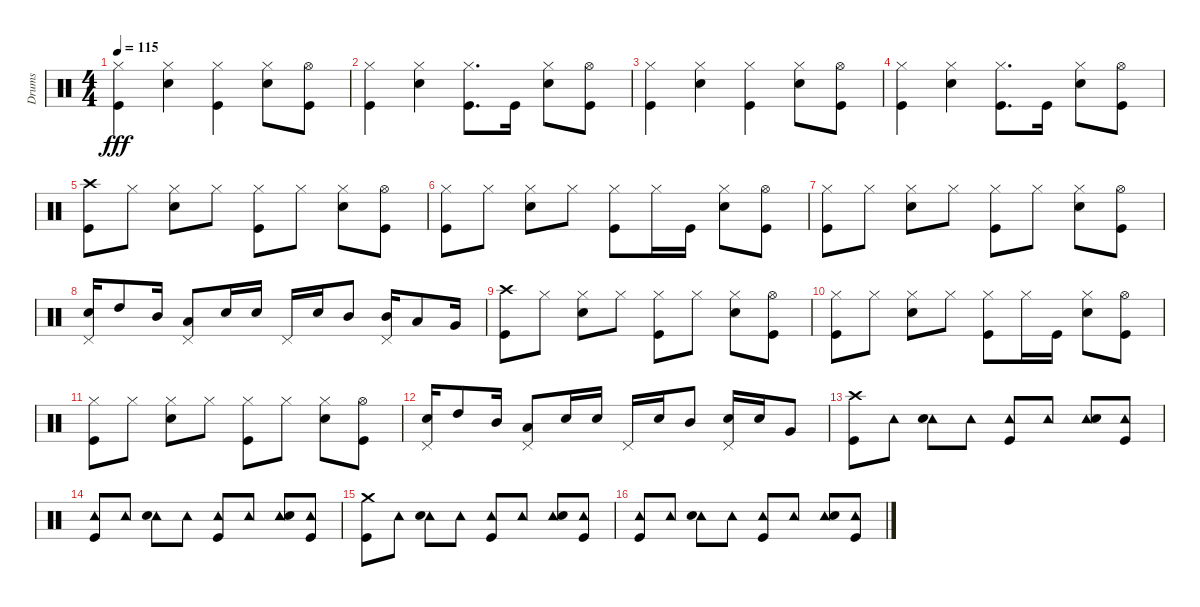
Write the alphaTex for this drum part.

\track ("Drums" "Drums") {instrument percussion}
\staff {score}
\articulation defaults
\ts (4 4)
\tempo 115
\clef neutral
\ks c
("Hi-Hat (closed)" "Kick (hit)").4{dy fff} ("Hi-Hat (closed)" "Electric Snare (hit)").4 ("Hi-Hat (closed)" "Kick (hit)").4 ("Hi-Hat (closed)" "Electric Snare (hit)").8 ("Hi-Hat (open)" "Kick (hit)").8 |
("Hi-Hat (closed)" "Kick (hit)").4 ("Hi-Hat (closed)" "Electric Snare (hit)").4 ("Hi-Hat (closed)" "Kick (hit)").8{d} "Kick (hit)".16 ("Hi-Hat (closed)" "Electric Snare (hit)").8 ("Hi-Hat (open)" "Kick (hit)").8 |
("Hi-Hat (closed)" "Kick (hit)").4 ("Hi-Hat (closed)" "Electric Snare (hit)").4 ("Hi-Hat (closed)" "Kick (hit)").4 ("Hi-Hat (closed)" "Electric Snare (hit)").8 ("Hi-Hat (open)" "Kick (hit)").8 |
("Hi-Hat (closed)" "Kick (hit)").4 ("Hi-Hat (closed)" "Electric Snare (hit)").4 ("Hi-Hat (closed)" "Kick (hit)").8{d} "Kick (hit)".16 ("Hi-Hat (closed)" "Electric Snare (hit)").8 ("Hi-Hat (open)" "Kick (hit)").8 |
("Crash high (hit)" "Kick (hit)").8 "Hi-Hat (closed)".8 ("Hi-Hat (closed)" "Electric Snare (hit)").8 "Hi-Hat (closed)".8 ("Hi-Hat (closed)" "Kick (hit)").8 "Hi-Hat (closed)".8 ("Hi-Hat (closed)" "Electric Snare (hit)").8 ("Hi-Hat (open)" "Kick (hit)").8 |
("Hi-Hat (closed)" "Kick (hit)").8 "Hi-Hat (closed)".8 ("Hi-Hat (closed)" "Electric Snare (hit)").8 "Hi-Hat (closed)".8 ("Hi-Hat (closed)" "Kick (hit)").8 "Hi-Hat (closed)".16 "Kick (hit)".16 ("Hi-Hat (closed)" "Electric Snare (hit)").8 ("Hi-Hat (open)" "Kick (hit)").8 |
("Hi-Hat (closed)" "Kick (hit)").8 "Hi-Hat (closed)".8 ("Hi-Hat (closed)" "Electric Snare (hit)").8 "Hi-Hat (closed)".8 ("Hi-Hat (closed)" "Kick (hit)").8 "Hi-Hat (closed)".8 ("Hi-Hat (closed)" "Electric Snare (hit)").8 ("Hi-Hat (open)" "Kick (hit)").8 |
("Pedal Hi-Hat (hit)" "Electric Snare (hit)").16 "High Tom (hit)".8 "Mid Tom (hit)".16 ("Low Tom (hit)" "Pedal Hi-Hat (hit)").8 "Electric Snare (hit)".16 "Electric Snare (hit)".16 "Pedal Hi-Hat (hit)".16 "Electric Snare (hit)".16 "Mid Tom (hit)".8 ("Mid Tom (hit)" "Pedal Hi-Hat (hit)").16 "Low Tom (hit)".8 "Very Low Tom (hit)".16 |
("Crash high (hit)" "Kick (hit)").8 "Hi-Hat (closed)".8 ("Hi-Hat (closed)" "Electric Snare (hit)").8 "Hi-Hat (closed)".8 ("Hi-Hat (closed)" "Kick (hit)").8 "Hi-Hat (closed)".8 ("Hi-Hat (closed)" "Electric Snare (hit)").8 ("Hi-Hat (open)" "Kick (hit)").8 |
("Hi-Hat (closed)" "Kick (hit)").8 "Hi-Hat (closed)".8 ("Hi-Hat (closed)" "Electric Snare (hit)").8 "Hi-Hat (closed)".8 ("Hi-Hat (closed)" "Kick (hit)").8 "Hi-Hat (closed)".16 "Kick (hit)".16 ("Hi-Hat (closed)" "Electric Snare (hit)").8 ("Hi-Hat (open)" "Kick (hit)").8 |
("Hi-Hat (closed)" "Kick (hit)").8 "Hi-Hat (closed)".8 ("Hi-Hat (closed)" "Electric Snare (hit)").8 "Hi-Hat (closed)".8 ("Hi-Hat (closed)" "Kick (hit)").8 "Hi-Hat (closed)".8 ("Hi-Hat (closed)" "Electric Snare (hit)").8 ("Hi-Hat (open)" "Kick (hit)").8 |
("Pedal Hi-Hat (hit)" "Electric Snare (hit)").16 "High Tom (hit)".8 "Mid Tom (hit)".16 ("Low Tom (hit)" "Pedal Hi-Hat (hit)").8 "Electric Snare (hit)".16 "Electric Snare (hit)".16 "Pedal Hi-Hat (hit)".16 "Electric Snare (hit)".16 "Mid Tom (hit)".8 ("Pedal Hi-Hat (hit)" "Electric Snare (hit)").16 "Electric Snare (hit)".16 "Very Low Tom (hit)".8 |
("Crash high (hit)" "Kick (hit)").8 "Tambourine (hit)".8 ("Tambourine (hit)" "Electric Snare (hit)").8 "Tambourine (hit)".8 ("Tambourine (hit)" "Kick (hit)").8 "Tambourine (hit)".8 ("Tambourine (hit)" "Electric Snare (hit)").8 ("Tambourine (hit)" "Kick (hit)").8 |
("Tambourine (hit)" "Kick (hit)").8 "Tambourine (hit)".8 ("Tambourine (hit)" "Electric Snare (hit)").8 "Tambourine (hit)".8 ("Tambourine (hit)" "Kick (hit)").8 "Tambourine (hit)".8 ("Tambourine (hit)" "Electric Snare (hit)").8 ("Tambourine (hit)" "Kick (hit)").8 |
("Crash medium (hit)" "Kick (hit)").8 "Tambourine (hit)".8 ("Tambourine (hit)" "Electric Snare (hit)").8 "Tambourine (hit)".8 ("Tambourine (hit)" "Kick (hit)").8 "Tambourine (hit)".8 ("Tambourine (hit)" "Electric Snare (hit)").8 ("Tambourine (hit)" "Kick (hit)").8 |
("Tambourine (hit)" "Kick (hit)").8 "Tambourine (hit)".8 ("Tambourine (hit)" "Electric Snare (hit)").8 "Tambourine (hit)".8 ("Tambourine (hit)" "Kick (hit)").8 "Tambourine (hit)".8 ("Tambourine (hit)" "Electric Snare (hit)").8 ("Tambourine (hit)" "Kick (hit)").8
